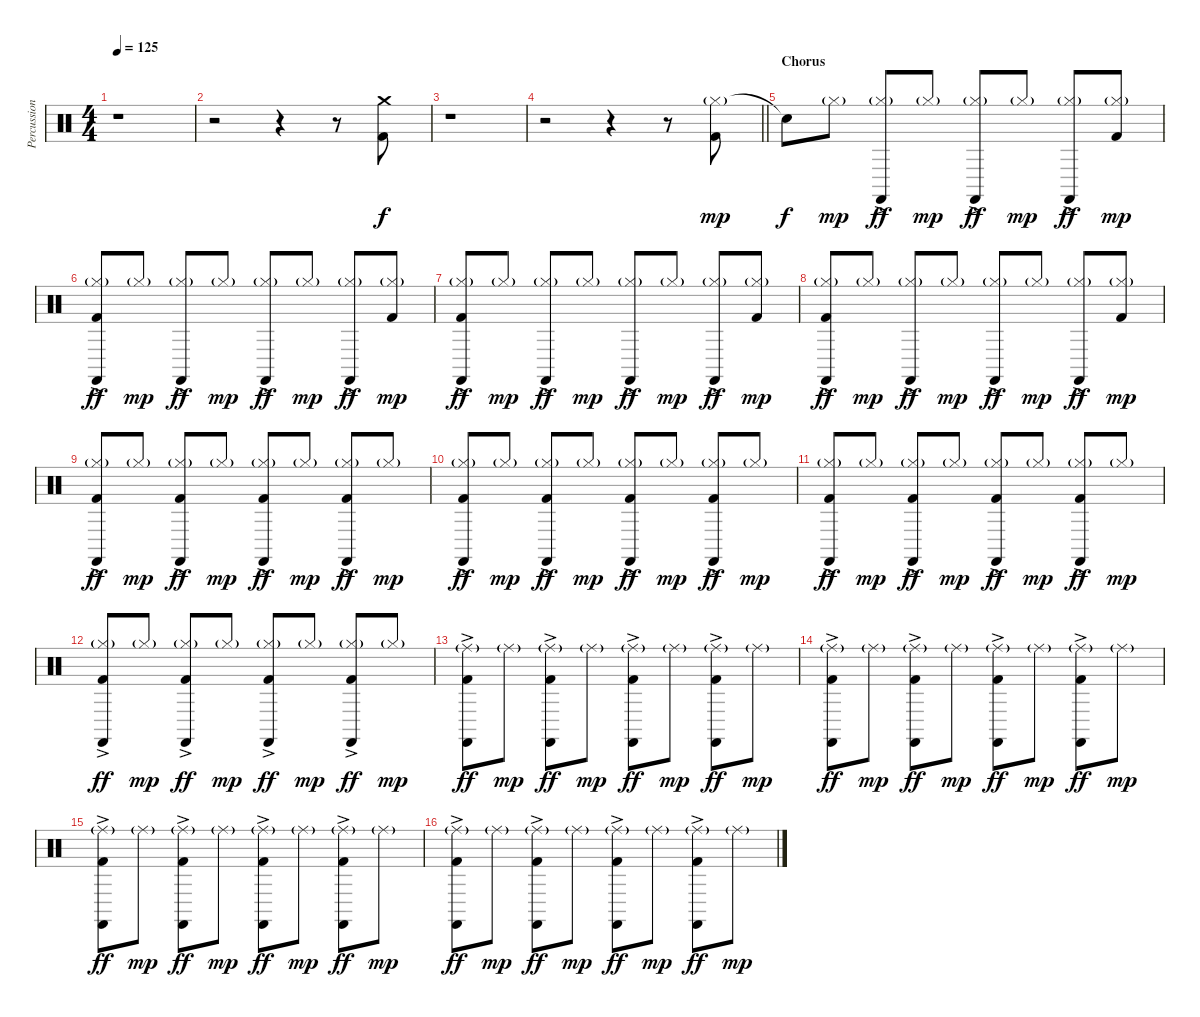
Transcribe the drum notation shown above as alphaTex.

\track ("Percussion" "Percussion") {instrument percussion}
\staff {score}
\articulation defaults
\ts (4 4)
\tempo 125
\clef neutral
\ks c
r.1{dy f volume 0} |
r.2 r.4 r.8 ("Crash medium (hit)" "Kick (hit) 2").8{volume 13} |
r.1{volume 0} |
\barLineRight lightlight
r.2 r.4 r.8 ("Hi-Hat (closed)"{g} "Kick (hit) 2").8{dy mp volume 13} |
\section ("" "Chorus")
"Snare (hit)"{t}.8{dy f} "Hi-Hat (closed)"{g}.8{dy mp} ("Hi-Hat (closed)"{g} "Castanets (hit)"{ac}).8{dy ff} "Hi-Hat (closed)"{g}.8{dy mp} ("Hi-Hat (closed)"{g} "Castanets (hit)"{ac}).8{dy ff} "Hi-Hat (closed)"{g}.8{dy mp} ("Hi-Hat (closed)"{g} "Castanets (hit)"{ac}).8{dy ff} ("Hi-Hat (closed)"{g} "Kick (hit) 2").8{dy mp} |
("Hi-Hat (closed)"{g} "Castanets (hit)"{ac} "Kick (hit) 2").8{dy ff} "Hi-Hat (closed)"{g}.8{dy mp} ("Hi-Hat (closed)"{g} "Castanets (hit)"{ac}).8{dy ff} "Hi-Hat (closed)"{g}.8{dy mp} ("Hi-Hat (closed)"{g} "Castanets (hit)"{ac}).8{dy ff} "Hi-Hat (closed)"{g}.8{dy mp} ("Hi-Hat (closed)"{g} "Castanets (hit)"{ac}).8{dy ff} ("Hi-Hat (closed)"{g} "Kick (hit) 2").8{dy mp} |
("Hi-Hat (closed)"{g} "Castanets (hit)"{ac} "Kick (hit) 2").8{dy ff} "Hi-Hat (closed)"{g}.8{dy mp} ("Hi-Hat (closed)"{g} "Castanets (hit)"{ac}).8{dy ff} "Hi-Hat (closed)"{g}.8{dy mp} ("Hi-Hat (closed)"{g} "Castanets (hit)"{ac}).8{dy ff} "Hi-Hat (closed)"{g}.8{dy mp} ("Hi-Hat (closed)"{g} "Castanets (hit)"{ac}).8{dy ff} ("Hi-Hat (closed)"{g} "Kick (hit) 2").8{dy mp} |
("Hi-Hat (closed)"{g} "Castanets (hit)"{ac} "Kick (hit) 2").8{dy ff} "Hi-Hat (closed)"{g}.8{dy mp} ("Hi-Hat (closed)"{g} "Castanets (hit)"{ac}).8{dy ff} "Hi-Hat (closed)"{g}.8{dy mp} ("Hi-Hat (closed)"{g} "Castanets (hit)"{ac}).8{dy ff} "Hi-Hat (closed)"{g}.8{dy mp} ("Hi-Hat (closed)"{g} "Castanets (hit)"{ac}).8{dy ff} ("Hi-Hat (closed)"{g} "Kick (hit) 2").8{dy mp} |
("Hi-Hat (closed)"{g} "Castanets (hit)"{ac} "Kick (hit) 2").8{dy ff} "Hi-Hat (closed)"{g}.8{dy mp} ("Hi-Hat (closed)"{g} "Castanets (hit)"{ac} "Kick (hit) 2").8{dy ff} "Hi-Hat (closed)"{g}.8{dy mp} ("Hi-Hat (closed)"{g} "Castanets (hit)"{ac} "Kick (hit) 2").8{dy ff} "Hi-Hat (closed)"{g}.8{dy mp} ("Hi-Hat (closed)"{g} "Castanets (hit)"{ac} "Kick (hit) 2").8{dy ff} "Hi-Hat (closed)"{g}.8{dy mp} |
("Hi-Hat (closed)"{g} "Castanets (hit)"{ac} "Kick (hit) 2").8{dy ff} "Hi-Hat (closed)"{g}.8{dy mp} ("Hi-Hat (closed)"{g} "Castanets (hit)"{ac} "Kick (hit) 2").8{dy ff} "Hi-Hat (closed)"{g}.8{dy mp} ("Hi-Hat (closed)"{g} "Castanets (hit)"{ac} "Kick (hit) 2").8{dy ff} "Hi-Hat (closed)"{g}.8{dy mp} ("Hi-Hat (closed)"{g} "Castanets (hit)"{ac} "Kick (hit) 2").8{dy ff} "Hi-Hat (closed)"{g}.8{dy mp} |
("Hi-Hat (closed)"{g} "Castanets (hit)"{ac} "Kick (hit) 2").8{dy ff} "Hi-Hat (closed)"{g}.8{dy mp} ("Hi-Hat (closed)"{g} "Castanets (hit)"{ac} "Kick (hit) 2").8{dy ff} "Hi-Hat (closed)"{g}.8{dy mp} ("Hi-Hat (closed)"{g} "Castanets (hit)"{ac} "Kick (hit) 2").8{dy ff} "Hi-Hat (closed)"{g}.8{dy mp} ("Hi-Hat (closed)"{g} "Castanets (hit)"{ac} "Kick (hit) 2").8{dy ff} "Hi-Hat (closed)"{g}.8{dy mp} |
("Hi-Hat (closed)"{g} "Castanets (hit)"{ac} "Kick (hit) 2").8{dy ff} "Hi-Hat (closed)"{g}.8{dy mp} ("Hi-Hat (closed)"{g} "Castanets (hit)"{ac} "Kick (hit) 2").8{dy ff} "Hi-Hat (closed)"{g}.8{dy mp} ("Hi-Hat (closed)"{g} "Castanets (hit)"{ac} "Kick (hit) 2").8{dy ff} "Hi-Hat (closed)"{g}.8{dy mp} ("Hi-Hat (closed)"{g} "Castanets (hit)"{ac} "Kick (hit) 2").8{dy ff} "Hi-Hat (closed)"{g}.8{dy mp} |
("Ride (middle)"{g} "Castanets (hit)"{ac} "Kick (hit) 2").8{dy ff} "Ride (middle)"{g}.8{dy mp} ("Ride (middle)"{g} "Castanets (hit)"{ac} "Kick (hit) 2").8{dy ff} "Ride (middle)"{g}.8{dy mp} ("Ride (middle)"{g} "Castanets (hit)"{ac} "Kick (hit) 2").8{dy ff} "Ride (middle)"{g}.8{dy mp} ("Ride (middle)"{g} "Castanets (hit)"{ac} "Kick (hit) 2").8{dy ff} "Ride (middle)"{g}.8{dy mp} |
("Ride (middle)"{g} "Castanets (hit)"{ac} "Kick (hit) 2").8{dy ff} "Ride (middle)"{g}.8{dy mp} ("Ride (middle)"{g} "Castanets (hit)"{ac} "Kick (hit) 2").8{dy ff} "Ride (middle)"{g}.8{dy mp} ("Ride (middle)"{g} "Castanets (hit)"{ac} "Kick (hit) 2").8{dy ff} "Ride (middle)"{g}.8{dy mp} ("Ride (middle)"{g} "Castanets (hit)"{ac} "Kick (hit) 2").8{dy ff} "Ride (middle)"{g}.8{dy mp} |
("Ride (middle)"{g} "Castanets (hit)"{ac} "Kick (hit) 2").8{dy ff} "Ride (middle)"{g}.8{dy mp} ("Ride (middle)"{g} "Castanets (hit)"{ac} "Kick (hit) 2").8{dy ff} "Ride (middle)"{g}.8{dy mp} ("Ride (middle)"{g} "Castanets (hit)"{ac} "Kick (hit) 2").8{dy ff} "Ride (middle)"{g}.8{dy mp} ("Ride (middle)"{g} "Castanets (hit)"{ac} "Kick (hit) 2").8{dy ff} "Ride (middle)"{g}.8{dy mp} |
("Ride (middle)"{g} "Castanets (hit)"{ac} "Kick (hit) 2").8{dy ff} "Ride (middle)"{g}.8{dy mp} ("Ride (middle)"{g} "Castanets (hit)"{ac} "Kick (hit) 2").8{dy ff} "Ride (middle)"{g}.8{dy mp} ("Ride (middle)"{g} "Castanets (hit)"{ac} "Kick (hit) 2").8{dy ff} "Ride (middle)"{g}.8{dy mp} ("Ride (middle)"{g} "Castanets (hit)"{ac} "Kick (hit) 2").8{dy ff} "Ride (middle)"{g}.8{dy mp}
